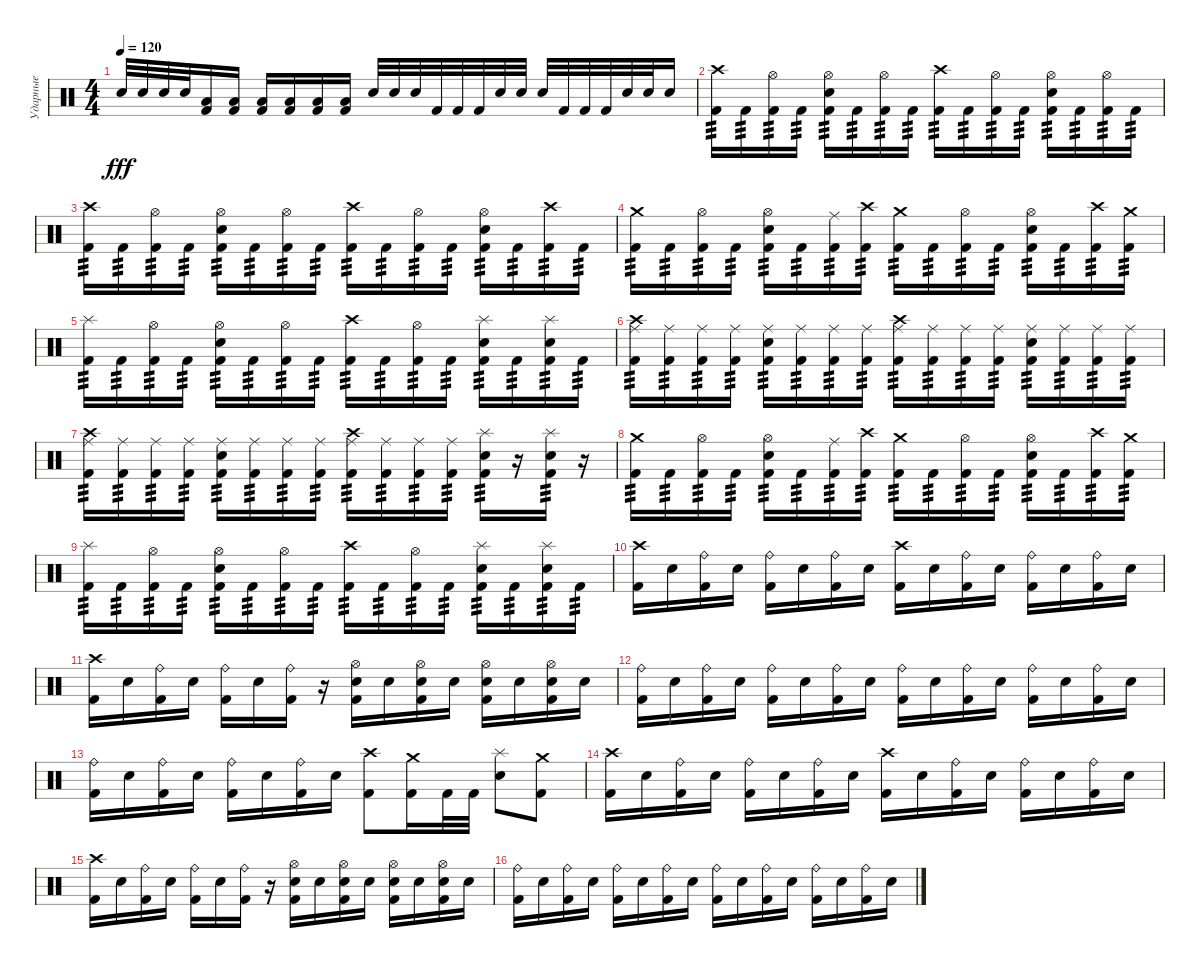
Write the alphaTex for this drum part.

\track ("Ударные" "Ударные") {instrument percussion}
\staff {score}
\articulation defaults
\ts (4 4)
\tempo 120
\clef neutral
\ks c "Snare (hit) 2".32{dy fff} "Snare (hit) 2".32 "Snare (hit) 2".32 "Snare (hit) 2".32
("Low Tom (hit)" "Kick (hit) 2").16 ("Low Tom (hit)" "Kick (hit) 2").16 ("Low Tom (hit)" "Kick (hit) 2").16 ("Low Tom (hit)" "Kick (hit) 2").16 ("Low Floor Tom (hit)" "Kick (hit) 2").16 ("Low Floor Tom (hit)" "Kick (hit) 2").16 "Snare (hit) 2".32 "Snare (hit) 2".32 "Snare (hit) 2".32 "Kick (hit) 2".32 "Kick (hit) 2".32 "Kick (hit) 2".32 "Snare (hit) 2".32 "Snare (hit) 2".32 "Snare (hit) 2".32 "Kick (hit) 2".32 "Kick (hit) 2".32 "Kick (hit) 2".32 "Snare (hit) 2".32 "Snare (hit) 2".32 "Snare (hit) 2".16 |
("Crash high (hit)" "Kick (hit) 2").16{tp 3} "Kick (hit) 2".16{tp 3} ("Hi-Hat (open)" "Kick (hit) 2").16{tp 3} "Kick (hit) 2".16{tp 3} ("Hi-Hat (open)" "Snare (hit) 2" "Kick (hit) 2").16{tp 3} "Kick (hit) 2".16{tp 3} ("Hi-Hat (open)" "Kick (hit) 2").16{tp 3} "Kick (hit) 2".16{tp 3} ("Crash high (hit)" "Kick (hit) 2").16{tp 3} "Kick (hit) 2".16{tp 3} ("Hi-Hat (open)" "Kick (hit) 2").16{tp 3} "Kick (hit) 2".16{tp 3} ("Hi-Hat (open)" "Snare (hit) 2" "Kick (hit) 2").16{tp 3} "Kick (hit) 2".16{tp 3} ("Hi-Hat (open)" "Kick (hit) 2").16{tp 3} "Kick (hit) 2".16{tp 3} |
("Crash high (hit)" "Kick (hit) 2").16{tp 3} "Kick (hit) 2".16{tp 3} ("Hi-Hat (open)" "Kick (hit) 2").16{tp 3} "Kick (hit) 2".16{tp 3} ("Hi-Hat (open)" "Snare (hit) 2" "Kick (hit) 2").16{tp 3} "Kick (hit) 2".16{tp 3} ("Hi-Hat (open)" "Kick (hit) 2").16{tp 3} "Kick (hit) 2".16{tp 3} ("Crash high (hit)" "Kick (hit) 2").16{tp 3} "Kick (hit) 2".16{tp 3} ("Hi-Hat (open)" "Kick (hit) 2").16{tp 3} "Kick (hit) 2".16{tp 3} ("Hi-Hat (open)" "Snare (hit) 2" "Kick (hit) 2").16{tp 3} "Kick (hit) 2".16{tp 3} ("Crash high (hit)" "Kick (hit) 2").16{tp 3} "Kick (hit) 2".16{tp 3} |
("Crash medium (hit)" "Kick (hit) 2").16{tp 3} "Kick (hit) 2".16{tp 3} ("Hi-Hat (open)" "Kick (hit) 2").16{tp 3} "Kick (hit) 2".16{tp 3} ("Hi-Hat (open)" "Snare (hit) 2" "Kick (hit) 2").16{tp 3} "Kick (hit) 2".16{tp 3} ("Ride (middle)" "Kick (hit) 2").16{tp 3} ("Crash high (hit)" "Kick (hit) 2").16{tp 3} ("Crash medium (hit)" "Kick (hit) 2").16{tp 3} "Kick (hit) 2".16{tp 3} ("Hi-Hat (open)" "Kick (hit) 2").16{tp 3} "Kick (hit) 2".16{tp 3} ("Hi-Hat (open)" "Snare (hit) 2" "Kick (hit) 2").16{tp 3} "Kick (hit) 2".16{tp 3} ("Crash high (hit)" "Kick (hit) 2").16{tp 3} ("Crash medium (hit)" "Kick (hit) 2").16{tp 3} |
("Splash (hit)" "Kick (hit) 2").16{tp 3} "Kick (hit) 2".16{tp 3} ("Hi-Hat (open)" "Kick (hit) 2").16{tp 3} "Kick (hit) 2".16{tp 3} ("Hi-Hat (open)" "Snare (hit) 2" "Kick (hit) 2").16{tp 3} "Kick (hit) 2".16{tp 3} ("Hi-Hat (open)" "Kick (hit) 2").16{tp 3} "Kick (hit) 2".16{tp 3} ("Crash high (hit)" "Kick (hit) 2").16{tp 3} "Kick (hit) 2".16{tp 3} ("Hi-Hat (open)" "Kick (hit) 2").16{tp 3} "Kick (hit) 2".16{tp 3} ("Splash (hit)" "Snare (hit) 2" "Kick (hit) 2").16{tp 3} "Kick (hit) 2".16{tp 3} ("Splash (hit)" "Snare (hit) 2" "Kick (hit) 2").16{tp 3} "Kick (hit) 2".16{tp 3} |
("Ride (middle)" "Crash high (hit)" "Kick (hit) 2").16{tp 3} ("Ride (middle)" "Kick (hit) 2").16{tp 3} ("Ride (middle)" "Kick (hit) 2").16{tp 3} ("Ride (middle)" "Kick (hit) 2").16{tp 3} ("Ride (middle)" "Snare (hit) 2" "Kick (hit) 2").16{tp 3} ("Ride (middle)" "Kick (hit) 2").16{tp 3} ("Ride (middle)" "Kick (hit) 2").16{tp 3} ("Ride (middle)" "Kick (hit) 2").16{tp 3} ("Ride (middle)" "Crash high (hit)" "Kick (hit) 2").16{tp 3} ("Ride (middle)" "Kick (hit) 2").16{tp 3} ("Ride (middle)" "Kick (hit) 2").16{tp 3} ("Ride (middle)" "Kick (hit) 2").16{tp 3} ("Ride (middle)" "Snare (hit) 2" "Kick (hit) 2").16{tp 3} ("Ride (middle)" "Kick (hit) 2").16{tp 3} ("Ride (middle)" "Kick (hit) 2").16{tp 3} ("Ride (middle)" "Kick (hit) 2").16{tp 3} |
("Ride (middle)" "Crash high (hit)" "Kick (hit) 2").16{tp 3} ("Ride (middle)" "Kick (hit) 2").16{tp 3} ("Ride (middle)" "Kick (hit) 2").16{tp 3} ("Ride (middle)" "Kick (hit) 2").16{tp 3} ("Ride (middle)" "Snare (hit) 2" "Kick (hit) 2").16{tp 3} ("Ride (middle)" "Kick (hit) 2").16{tp 3} ("Ride (middle)" "Kick (hit) 2").16{tp 3} ("Ride (middle)" "Kick (hit) 2").16{tp 3} ("Ride (middle)" "Crash high (hit)" "Kick (hit) 2").16{tp 3} ("Ride (middle)" "Kick (hit) 2").16{tp 3} ("Ride (middle)" "Kick (hit) 2").16{tp 3} ("Ride (middle)" "Kick (hit) 2").16{tp 3} ("Splash (hit)" "Snare (hit) 2" "Kick (hit) 2").16{tp 3} r.16 ("Splash (hit)" "Snare (hit) 2" "Kick (hit) 2").16{tp 3} r.16 |
("Crash medium (hit)" "Kick (hit) 2").16{tp 3} "Kick (hit) 2".16{tp 3} ("Hi-Hat (open)" "Kick (hit) 2").16{tp 3} "Kick (hit) 2".16{tp 3} ("Hi-Hat (open)" "Snare (hit) 2" "Kick (hit) 2").16{tp 3} "Kick (hit) 2".16{tp 3} ("Ride (middle)" "Kick (hit) 2").16{tp 3} ("Crash high (hit)" "Kick (hit) 2").16{tp 3} ("Crash medium (hit)" "Kick (hit) 2").16{tp 3} "Kick (hit) 2".16{tp 3} ("Hi-Hat (open)" "Kick (hit) 2").16{tp 3} "Kick (hit) 2".16{tp 3} ("Hi-Hat (open)" "Snare (hit) 2" "Kick (hit) 2").16{tp 3} "Kick (hit) 2".16{tp 3} ("Crash high (hit)" "Kick (hit) 2").16{tp 3} ("Crash medium (hit)" "Kick (hit) 2").16{tp 3} |
("Splash (hit)" "Kick (hit) 2").16{tp 3} "Kick (hit) 2".16{tp 3} ("Hi-Hat (open)" "Kick (hit) 2").16{tp 3} "Kick (hit) 2".16{tp 3} ("Hi-Hat (open)" "Snare (hit) 2" "Kick (hit) 2").16{tp 3} "Kick (hit) 2".16{tp 3} ("Hi-Hat (open)" "Kick (hit) 2").16{tp 3} "Kick (hit) 2".16{tp 3} ("Crash high (hit)" "Kick (hit) 2").16{tp 3} "Kick (hit) 2".16{tp 3} ("Hi-Hat (open)" "Kick (hit) 2").16{tp 3} "Kick (hit) 2".16{tp 3} ("Splash (hit)" "Snare (hit) 2" "Kick (hit) 2").16{tp 3} "Kick (hit) 2".16{tp 3} ("Splash (hit)" "Snare (hit) 2" "Kick (hit) 2").16{tp 3} "Kick (hit) 2".16{tp 3} |
("Crash high (hit)" "Kick (hit) 2").16 "Snare (hit) 2".16 ("Ride (bell)" "Kick (hit) 2").16 "Snare (hit) 2".16 ("Ride (bell)" "Kick (hit) 2").16 "Snare (hit) 2".16 ("Ride (bell)" "Kick (hit) 2").16 "Snare (hit) 2".16 ("Crash high (hit)" "Kick (hit) 2").16 "Snare (hit) 2".16 ("Ride (bell)" "Kick (hit) 2").16 "Snare (hit) 2".16 ("Ride (bell)" "Kick (hit) 2").16 "Snare (hit) 2".16 ("Ride (bell)" "Kick (hit) 2").16 "Snare (hit) 2".16 |
("Crash high (hit)" "Kick (hit) 2").16 "Snare (hit) 2".16 ("Ride (bell)" "Kick (hit) 2").16 "Snare (hit) 2".16 ("Ride (bell)" "Kick (hit) 2").16 "Snare (hit) 2".16 ("Ride (bell)" "Kick (hit) 2").16 r.16 ("Hi-Hat (open)" "Snare (hit) 2" "Kick (hit) 2").16 "Snare (hit) 2".16 ("Hi-Hat (open)" "Snare (hit) 2" "Kick (hit) 2").16 "Snare (hit) 2".16 ("Hi-Hat (open)" "Snare (hit) 2" "Kick (hit) 2").16 "Snare (hit) 2".16 ("Hi-Hat (open)" "Snare (hit) 2" "Kick (hit) 2").16 "Snare (hit) 2".16 |
("Ride (bell)" "Kick (hit) 2").16 "Snare (hit) 2".16 ("Ride (bell)" "Kick (hit) 2").16 "Snare (hit) 2".16 ("Ride (bell)" "Kick (hit) 2").16 "Snare (hit) 2".16 ("Ride (bell)" "Kick (hit) 2").16 "Snare (hit) 2".16 ("Ride (bell)" "Kick (hit) 2").16 "Snare (hit) 2".16 ("Ride (bell)" "Kick (hit) 2").16 "Snare (hit) 2".16 ("Ride (bell)" "Kick (hit) 2").16 "Snare (hit) 2".16 ("Ride (bell)" "Kick (hit) 2").16 "Snare (hit) 2".16 |
("Ride (bell)" "Kick (hit) 2").16 "Snare (hit) 2".16 ("Ride (bell)" "Kick (hit) 2").16 "Snare (hit) 2".16 ("Ride (bell)" "Kick (hit) 2").16 "Snare (hit) 2".16 ("Ride (bell)" "Kick (hit) 2").16 "Snare (hit) 2".16 ("Crash high (hit)" "Kick (hit) 2").8 ("Crash medium (hit)" "Kick (hit) 2").16 "Kick (hit) 2".32 "Kick (hit) 2".32 ("Splash (hit)" "Snare (hit) 2").8 ("Crash medium (hit)" "Kick (hit) 2").8 |
("Crash high (hit)" "Kick (hit) 2").16 "Snare (hit) 2".16 ("Ride (bell)" "Kick (hit) 2").16 "Snare (hit) 2".16 ("Ride (bell)" "Kick (hit) 2").16 "Snare (hit) 2".16 ("Ride (bell)" "Kick (hit) 2").16 "Snare (hit) 2".16 ("Crash high (hit)" "Kick (hit) 2").16 "Snare (hit) 2".16 ("Ride (bell)" "Kick (hit) 2").16 "Snare (hit) 2".16 ("Ride (bell)" "Kick (hit) 2").16 "Snare (hit) 2".16 ("Ride (bell)" "Kick (hit) 2").16 "Snare (hit) 2".16 |
("Crash high (hit)" "Kick (hit) 2").16 "Snare (hit) 2".16 ("Ride (bell)" "Kick (hit) 2").16 "Snare (hit) 2".16 ("Ride (bell)" "Kick (hit) 2").16 "Snare (hit) 2".16 ("Ride (bell)" "Kick (hit) 2").16 r.16 ("Hi-Hat (open)" "Snare (hit) 2" "Kick (hit) 2").16 "Snare (hit) 2".16 ("Hi-Hat (open)" "Snare (hit) 2" "Kick (hit) 2").16 "Snare (hit) 2".16 ("Hi-Hat (open)" "Snare (hit) 2" "Kick (hit) 2").16 "Snare (hit) 2".16 ("Hi-Hat (open)" "Snare (hit) 2" "Kick (hit) 2").16 "Snare (hit) 2".16 |
("Ride (bell)" "Kick (hit) 2").16 "Snare (hit) 2".16 ("Ride (bell)" "Kick (hit) 2").16 "Snare (hit) 2".16 ("Ride (bell)" "Kick (hit) 2").16 "Snare (hit) 2".16 ("Ride (bell)" "Kick (hit) 2").16 "Snare (hit) 2".16 ("Ride (bell)" "Kick (hit) 2").16 "Snare (hit) 2".16 ("Ride (bell)" "Kick (hit) 2").16 "Snare (hit) 2".16 ("Ride (bell)" "Kick (hit) 2").16 "Snare (hit) 2".16 ("Ride (bell)" "Kick (hit) 2").16 "Snare (hit) 2".16
